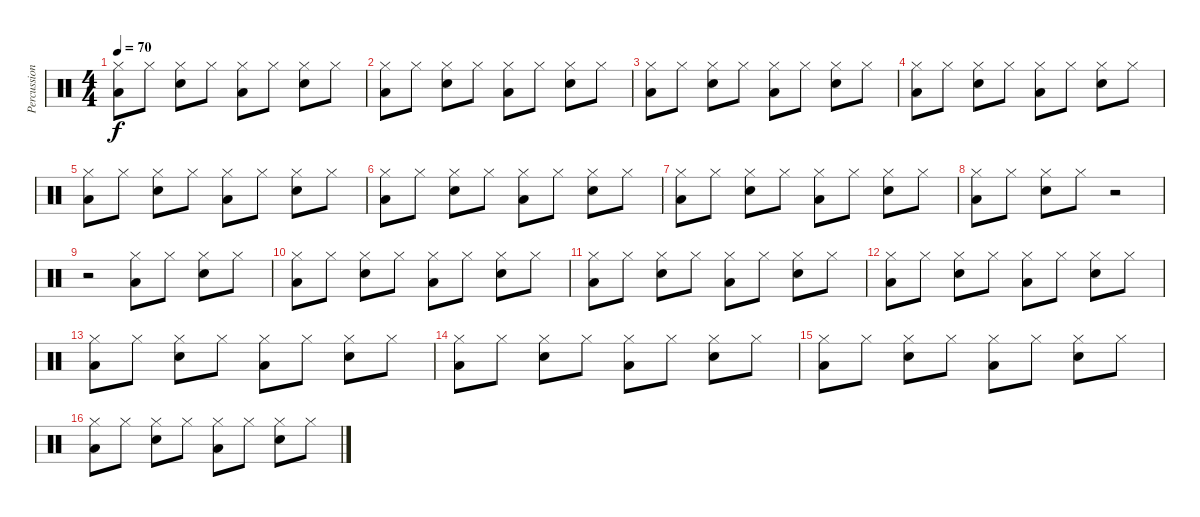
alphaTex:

\track ("Percussions" "Percussion") {instrument percussion}
\staff {score}
\articulation defaults
\ts (4 4)
\tempo 70
\clef neutral
\ks c
("Hi-Hat (closed)" "Low Floor Tom (hit)").8{dy f} "Hi-Hat (closed)".8 ("Hi-Hat (closed)" "Electric Snare (hit)").8 "Hi-Hat (closed)".8 ("Hi-Hat (closed)" "Low Floor Tom (hit)").8 "Hi-Hat (closed)".8 ("Hi-Hat (closed)" "Electric Snare (hit)").8 "Hi-Hat (closed)".8 |
("Hi-Hat (closed)" "Low Floor Tom (hit)").8 "Hi-Hat (closed)".8 ("Hi-Hat (closed)" "Electric Snare (hit)").8 "Hi-Hat (closed)".8 ("Hi-Hat (closed)" "Low Floor Tom (hit)").8 "Hi-Hat (closed)".8 ("Hi-Hat (closed)" "Electric Snare (hit)").8 "Hi-Hat (closed)".8 |
("Hi-Hat (closed)" "Low Floor Tom (hit)").8 "Hi-Hat (closed)".8 ("Hi-Hat (closed)" "Electric Snare (hit)").8 "Hi-Hat (closed)".8 ("Hi-Hat (closed)" "Low Floor Tom (hit)").8 "Hi-Hat (closed)".8 ("Hi-Hat (closed)" "Electric Snare (hit)").8 "Hi-Hat (closed)".8 |
("Hi-Hat (closed)" "Low Floor Tom (hit)").8 "Hi-Hat (closed)".8 ("Hi-Hat (closed)" "Electric Snare (hit)").8 "Hi-Hat (closed)".8 ("Hi-Hat (closed)" "Low Floor Tom (hit)").8 "Hi-Hat (closed)".8 ("Hi-Hat (closed)" "Electric Snare (hit)").8 "Hi-Hat (closed)".8 |
("Hi-Hat (closed)" "Low Floor Tom (hit)").8 "Hi-Hat (closed)".8 ("Hi-Hat (closed)" "Electric Snare (hit)").8 "Hi-Hat (closed)".8 ("Hi-Hat (closed)" "Low Floor Tom (hit)").8 "Hi-Hat (closed)".8 ("Hi-Hat (closed)" "Electric Snare (hit)").8 "Hi-Hat (closed)".8 |
("Hi-Hat (closed)" "Low Floor Tom (hit)").8 "Hi-Hat (closed)".8 ("Hi-Hat (closed)" "Electric Snare (hit)").8 "Hi-Hat (closed)".8 ("Hi-Hat (closed)" "Low Floor Tom (hit)").8 "Hi-Hat (closed)".8 ("Hi-Hat (closed)" "Electric Snare (hit)").8 "Hi-Hat (closed)".8 |
("Hi-Hat (closed)" "Low Floor Tom (hit)").8 "Hi-Hat (closed)".8 ("Hi-Hat (closed)" "Electric Snare (hit)").8 "Hi-Hat (closed)".8 ("Hi-Hat (closed)" "Low Floor Tom (hit)").8 "Hi-Hat (closed)".8 ("Hi-Hat (closed)" "Electric Snare (hit)").8 "Hi-Hat (closed)".8 |
("Hi-Hat (closed)" "Low Floor Tom (hit)").8 "Hi-Hat (closed)".8 ("Hi-Hat (closed)" "Electric Snare (hit)").8 "Hi-Hat (closed)".8 r.2 |
r.2 ("Hi-Hat (closed)" "Low Floor Tom (hit)").8 "Hi-Hat (closed)".8 ("Hi-Hat (closed)" "Electric Snare (hit)").8 "Hi-Hat (closed)".8 |
("Hi-Hat (closed)" "Low Floor Tom (hit)").8 "Hi-Hat (closed)".8 ("Hi-Hat (closed)" "Electric Snare (hit)").8 "Hi-Hat (closed)".8 ("Hi-Hat (closed)" "Low Floor Tom (hit)").8 "Hi-Hat (closed)".8 ("Hi-Hat (closed)" "Electric Snare (hit)").8 "Hi-Hat (closed)".8 |
("Hi-Hat (closed)" "Low Floor Tom (hit)").8 "Hi-Hat (closed)".8 ("Hi-Hat (closed)" "Electric Snare (hit)").8 "Hi-Hat (closed)".8 ("Hi-Hat (closed)" "Low Floor Tom (hit)").8 "Hi-Hat (closed)".8 ("Hi-Hat (closed)" "Electric Snare (hit)").8 "Hi-Hat (closed)".8 |
("Hi-Hat (closed)" "Low Floor Tom (hit)").8 "Hi-Hat (closed)".8 ("Hi-Hat (closed)" "Electric Snare (hit)").8 "Hi-Hat (closed)".8 ("Hi-Hat (closed)" "Low Floor Tom (hit)").8 "Hi-Hat (closed)".8 ("Hi-Hat (closed)" "Electric Snare (hit)").8 "Hi-Hat (closed)".8 |
("Hi-Hat (closed)" "Low Floor Tom (hit)").8 "Hi-Hat (closed)".8 ("Hi-Hat (closed)" "Electric Snare (hit)").8 "Hi-Hat (closed)".8 ("Hi-Hat (closed)" "Low Floor Tom (hit)").8 "Hi-Hat (closed)".8 ("Hi-Hat (closed)" "Electric Snare (hit)").8 "Hi-Hat (closed)".8 |
("Hi-Hat (closed)" "Low Floor Tom (hit)").8 "Hi-Hat (closed)".8 ("Hi-Hat (closed)" "Electric Snare (hit)").8 "Hi-Hat (closed)".8 ("Hi-Hat (closed)" "Low Floor Tom (hit)").8 "Hi-Hat (closed)".8 ("Hi-Hat (closed)" "Electric Snare (hit)").8 "Hi-Hat (closed)".8 |
("Hi-Hat (closed)" "Low Floor Tom (hit)").8 "Hi-Hat (closed)".8 ("Hi-Hat (closed)" "Electric Snare (hit)").8 "Hi-Hat (closed)".8 ("Hi-Hat (closed)" "Low Floor Tom (hit)").8 "Hi-Hat (closed)".8 ("Hi-Hat (closed)" "Electric Snare (hit)").8 "Hi-Hat (closed)".8 |
("Hi-Hat (closed)" "Low Floor Tom (hit)").8 "Hi-Hat (closed)".8 ("Hi-Hat (closed)" "Electric Snare (hit)").8 "Hi-Hat (closed)".8 ("Hi-Hat (closed)" "Low Floor Tom (hit)").8 "Hi-Hat (closed)".8 ("Hi-Hat (closed)" "Electric Snare (hit)").8 "Hi-Hat (closed)".8
